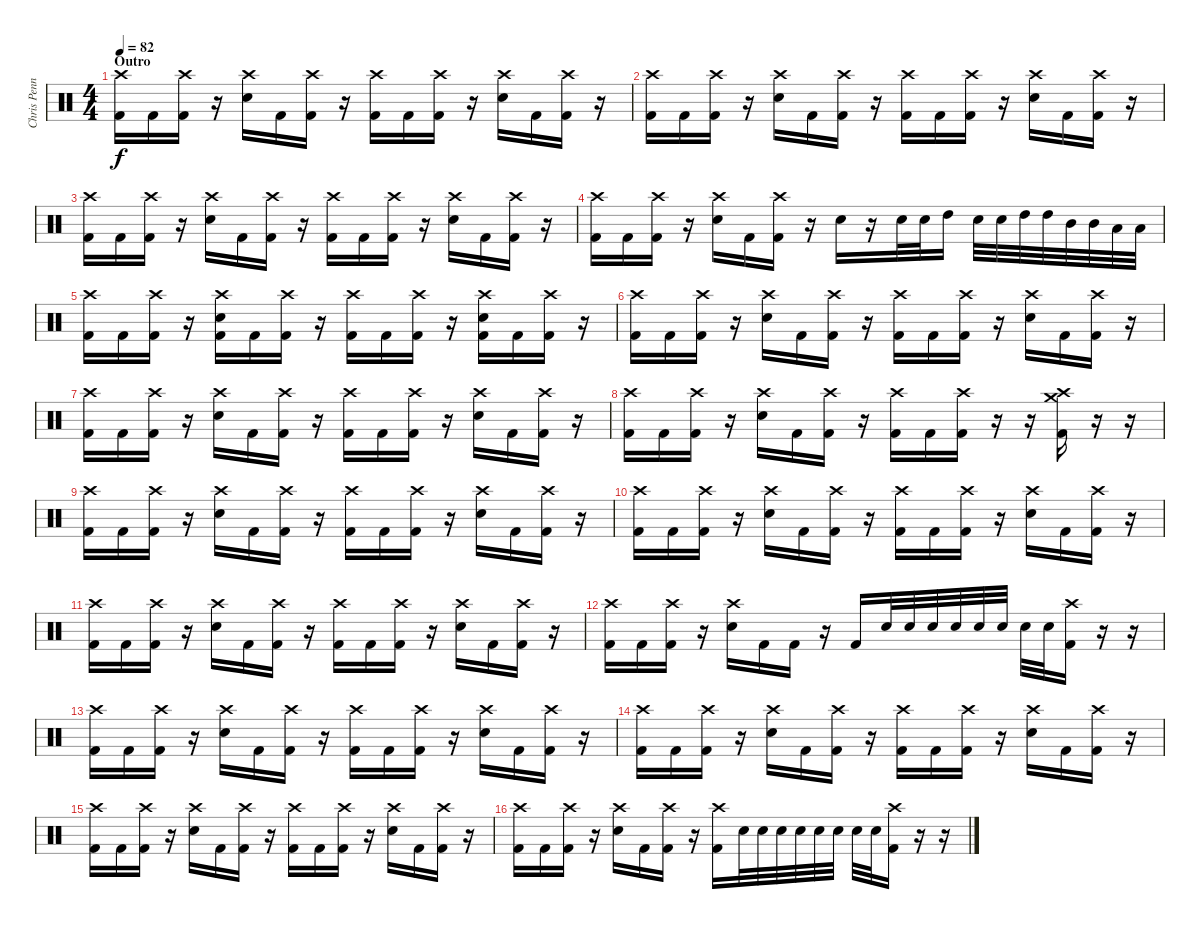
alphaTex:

\track ("Chris Pennie" "Chris Penn") {instrument percussion}
\staff {score}
\articulation defaults
\ts (4 4)
\section ("" "Outro")
\tempo 82
\clef neutral
\ks c
("Crash high (hit)" "Kick (hit) 2").16{dy f} "Kick (hit) 2".16 ("Crash high (hit)" "Kick (hit) 2").16 r.16 ("Crash high (hit)" "Electric Snare (hit)").16 "Kick (hit) 2".16 ("Crash high (hit)" "Kick (hit) 2").16 r.16 ("Crash high (hit)" "Kick (hit) 2").16 "Kick (hit) 2".16 ("Crash high (hit)" "Kick (hit) 2").16 r.16 ("Crash high (hit)" "Electric Snare (hit)").16 "Kick (hit) 2".16 ("Crash high (hit)" "Kick (hit) 2").16 r.16 |
("Crash high (hit)" "Kick (hit) 2").16 "Kick (hit) 2".16 ("Crash high (hit)" "Kick (hit) 2").16 r.16 ("Crash high (hit)" "Electric Snare (hit)").16 "Kick (hit) 2".16 ("Crash high (hit)" "Kick (hit) 2").16 r.16 ("Crash high (hit)" "Kick (hit) 2").16 "Kick (hit) 2".16 ("Crash high (hit)" "Kick (hit) 2").16 r.16 ("Crash high (hit)" "Electric Snare (hit)").16 "Kick (hit) 2".16 ("Crash high (hit)" "Kick (hit) 2").16 r.16 |
("Crash high (hit)" "Kick (hit) 2").16 "Kick (hit) 2".16 ("Crash high (hit)" "Kick (hit) 2").16 r.16 ("Crash high (hit)" "Electric Snare (hit)").16 "Kick (hit) 2".16 ("Crash high (hit)" "Kick (hit) 2").16 r.16 ("Crash high (hit)" "Kick (hit) 2").16 "Kick (hit) 2".16 ("Crash high (hit)" "Kick (hit) 2").16 r.16 ("Crash high (hit)" "Electric Snare (hit)").16 "Kick (hit) 2".16 ("Crash high (hit)" "Kick (hit) 2").16 r.16 |
("Crash high (hit)" "Kick (hit) 2").16 "Kick (hit) 2".16 ("Crash high (hit)" "Kick (hit) 2").16 r.16 ("Crash high (hit)" "Electric Snare (hit)").16 "Kick (hit) 2".16 ("Crash high (hit)" "Kick (hit) 2").16 r.16 "Electric Snare (hit)".16 r.16 "Electric Snare (hit)".32 "Electric Snare (hit)".32 "High Tom (hit)".16 "Electric Snare (hit)".32 "Electric Snare (hit)".32 "High Tom (hit)".32 "High Tom (hit)".32 "Mid Tom (hit)".32 "Mid Tom (hit)".32 "Low Floor Tom (hit)".32 "Low Floor Tom (hit)".32 |
("Crash high (hit)" "Kick (hit) 2").16 "Kick (hit) 2".16 ("Crash high (hit)" "Kick (hit) 2").16 r.16 ("Crash high (hit)" "Electric Snare (hit)" "Kick (hit) 2").16 "Kick (hit) 2".16 ("Crash high (hit)" "Kick (hit) 2").16 r.16 ("Crash high (hit)" "Kick (hit) 2").16 "Kick (hit) 2".16 ("Crash high (hit)" "Kick (hit) 2").16 r.16 ("Crash high (hit)" "Electric Snare (hit)" "Kick (hit) 2").16 "Kick (hit) 2".16 ("Crash high (hit)" "Kick (hit) 2").16 r.16 |
("Crash high (hit)" "Kick (hit) 2").16 "Kick (hit) 2".16 ("Crash high (hit)" "Kick (hit) 2").16 r.16 ("Crash high (hit)" "Electric Snare (hit)").16 "Kick (hit) 2".16 ("Crash high (hit)" "Kick (hit) 2").16 r.16 ("Crash high (hit)" "Kick (hit) 2").16 "Kick (hit) 2".16 ("Crash high (hit)" "Kick (hit) 2").16 r.16 ("Crash high (hit)" "Electric Snare (hit)").16 "Kick (hit) 2".16 ("Crash high (hit)" "Kick (hit) 2").16 r.16 |
("Crash high (hit)" "Kick (hit) 2").16 "Kick (hit) 2".16 ("Crash high (hit)" "Kick (hit) 2").16 r.16 ("Crash high (hit)" "Electric Snare (hit)").16 "Kick (hit) 2".16 ("Crash high (hit)" "Kick (hit) 2").16 r.16 ("Crash high (hit)" "Kick (hit) 2").16 "Kick (hit) 2".16 ("Crash high (hit)" "Kick (hit) 2").16 r.16 ("Crash high (hit)" "Electric Snare (hit)").16 "Kick (hit) 2".16 ("Crash high (hit)" "Kick (hit) 2").16 r.16 |
("Crash high (hit)" "Kick (hit) 2").16 "Kick (hit) 2".16 ("Crash high (hit)" "Kick (hit) 2").16 r.16 ("Crash high (hit)" "Electric Snare (hit)").16 "Kick (hit) 2".16 ("Crash high (hit)" "Kick (hit) 2").16 r.16 ("Crash high (hit)" "Kick (hit) 2").16 "Kick (hit) 2".16 ("Crash high (hit)" "Kick (hit) 2").16 r.16 r.16 ("Crash high (hit)" "Crash medium (hit)" "Kick (hit) 2").16 r.16 r.16 |
("Crash high (hit)" "Kick (hit) 2").16 "Kick (hit) 2".16 ("Crash high (hit)" "Kick (hit) 2").16 r.16 ("Crash high (hit)" "Electric Snare (hit)").16 "Kick (hit) 2".16 ("Crash high (hit)" "Kick (hit) 2").16 r.16 ("Crash high (hit)" "Kick (hit) 2").16 "Kick (hit) 2".16 ("Crash high (hit)" "Kick (hit) 2").16 r.16 ("Crash high (hit)" "Electric Snare (hit)").16 "Kick (hit) 2".16 ("Crash high (hit)" "Kick (hit) 2").16 r.16 |
("Crash high (hit)" "Kick (hit) 2").16 "Kick (hit) 2".16 ("Crash high (hit)" "Kick (hit) 2").16 r.16 ("Crash high (hit)" "Electric Snare (hit)").16 "Kick (hit) 2".16 ("Crash high (hit)" "Kick (hit) 2").16 r.16 ("Crash high (hit)" "Kick (hit) 2").16 "Kick (hit) 2".16 ("Crash high (hit)" "Kick (hit) 2").16 r.16 ("Crash high (hit)" "Electric Snare (hit)").16 "Kick (hit) 2".16 ("Crash high (hit)" "Kick (hit) 2").16 r.16 |
("Crash high (hit)" "Kick (hit) 2").16 "Kick (hit) 2".16 ("Crash high (hit)" "Kick (hit) 2").16 r.16 ("Crash high (hit)" "Electric Snare (hit)").16 "Kick (hit) 2".16 ("Crash high (hit)" "Kick (hit) 2").16 r.16 ("Crash high (hit)" "Kick (hit) 2").16 "Kick (hit) 2".16 ("Crash high (hit)" "Kick (hit) 2").16 r.16 ("Crash high (hit)" "Electric Snare (hit)").16 "Kick (hit) 2".16 ("Crash high (hit)" "Kick (hit) 2").16 r.16 |
("Crash high (hit)" "Kick (hit) 2").16 "Kick (hit) 2".16 ("Crash high (hit)" "Kick (hit) 2").16 r.16 ("Crash high (hit)" "Electric Snare (hit)").16 "Kick (hit) 2".16 "Kick (hit) 2".16 r.16 "Kick (hit) 2".16 "Electric Snare (hit)".32 "Electric Snare (hit)".32 "Electric Snare (hit)".32 "Electric Snare (hit)".32 "Electric Snare (hit)".32 "Electric Snare (hit)".32 "Electric Snare (hit)".32 "Electric Snare (hit)".32 ("Crash high (hit)" "Kick (hit) 2").16 r.16 r.16 |
("Crash high (hit)" "Kick (hit) 2").16{volume 0} "Kick (hit) 2".16 ("Crash high (hit)" "Kick (hit) 2").16 r.16 ("Crash high (hit)" "Electric Snare (hit)").16 "Kick (hit) 2".16 ("Crash high (hit)" "Kick (hit) 2").16 r.16 ("Crash high (hit)" "Kick (hit) 2").16 "Kick (hit) 2".16 ("Crash high (hit)" "Kick (hit) 2").16 r.16 ("Crash high (hit)" "Electric Snare (hit)").16 "Kick (hit) 2".16 ("Crash high (hit)" "Kick (hit) 2").16 r.16 |
("Crash high (hit)" "Kick (hit) 2").16 "Kick (hit) 2".16 ("Crash high (hit)" "Kick (hit) 2").16 r.16 ("Crash high (hit)" "Electric Snare (hit)").16 "Kick (hit) 2".16 ("Crash high (hit)" "Kick (hit) 2").16 r.16 ("Crash high (hit)" "Kick (hit) 2").16 "Kick (hit) 2".16 ("Crash high (hit)" "Kick (hit) 2").16 r.16 ("Crash high (hit)" "Electric Snare (hit)").16 "Kick (hit) 2".16 ("Crash high (hit)" "Kick (hit) 2").16 r.16 |
("Crash high (hit)" "Kick (hit) 2").16 "Kick (hit) 2".16 ("Crash high (hit)" "Kick (hit) 2").16 r.16 ("Crash high (hit)" "Electric Snare (hit)").16 "Kick (hit) 2".16 ("Crash high (hit)" "Kick (hit) 2").16 r.16 ("Crash high (hit)" "Kick (hit) 2").16 "Kick (hit) 2".16 ("Crash high (hit)" "Kick (hit) 2").16 r.16 ("Crash high (hit)" "Electric Snare (hit)").16 "Kick (hit) 2".16 ("Crash high (hit)" "Kick (hit) 2").16 r.16 |
("Crash high (hit)" "Kick (hit) 2").16 "Kick (hit) 2".16 ("Crash high (hit)" "Kick (hit) 2").16 r.16 ("Crash high (hit)" "Electric Snare (hit)").16 "Kick (hit) 2".16 ("Crash high (hit)" "Kick (hit) 2").16 r.16 ("Crash high (hit)" "Kick (hit) 2").16 "Electric Snare (hit)".32 "Electric Snare (hit)".32 "Electric Snare (hit)".32 "Electric Snare (hit)".32 "Electric Snare (hit)".32 "Electric Snare (hit)".32 "Electric Snare (hit)".32 "Electric Snare (hit)".32 ("Crash high (hit)" "Kick (hit) 2").16 r.16 r.16
